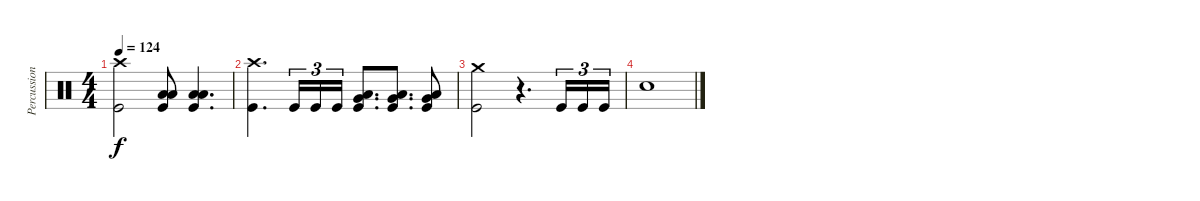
\track ("Percussion" "Percussion") {instrument percussion}
\staff {score}
\articulation defaults
\ts (4 4)
\tempo 124
\clef neutral
\ks c
("Crash high (hit)" "Kick (hit)").2{dy f} ("Low Tom (hit)" "Low Floor Tom (hit)" "Kick (hit)").8 ("Low Tom (hit)" "Low Floor Tom (hit)" "Kick (hit)").4{d} |
("Crash high (hit)" "Kick (hit)").4{d} "Kick (hit)".16{tu (3 2)} "Kick (hit)".16{tu (3 2)} "Kick (hit)".16{tu (3 2)} ("Very Low Tom (hit)" "Low Floor Tom (hit)" "Kick (hit)").8{d} ("Very Low Tom (hit)" "Low Floor Tom (hit)" "Kick (hit)").8{d} ("Very Low Tom (hit)" "Low Floor Tom (hit)" "Kick (hit)").8 |
("Crash medium (hit)" "Kick (hit)").2 r.4{d} "Kick (hit)".16{tu (3 2)} "Kick (hit)".16{tu (3 2)} "Kick (hit)".16{tu (3 2)} |
"Snare (hit) 2".1
